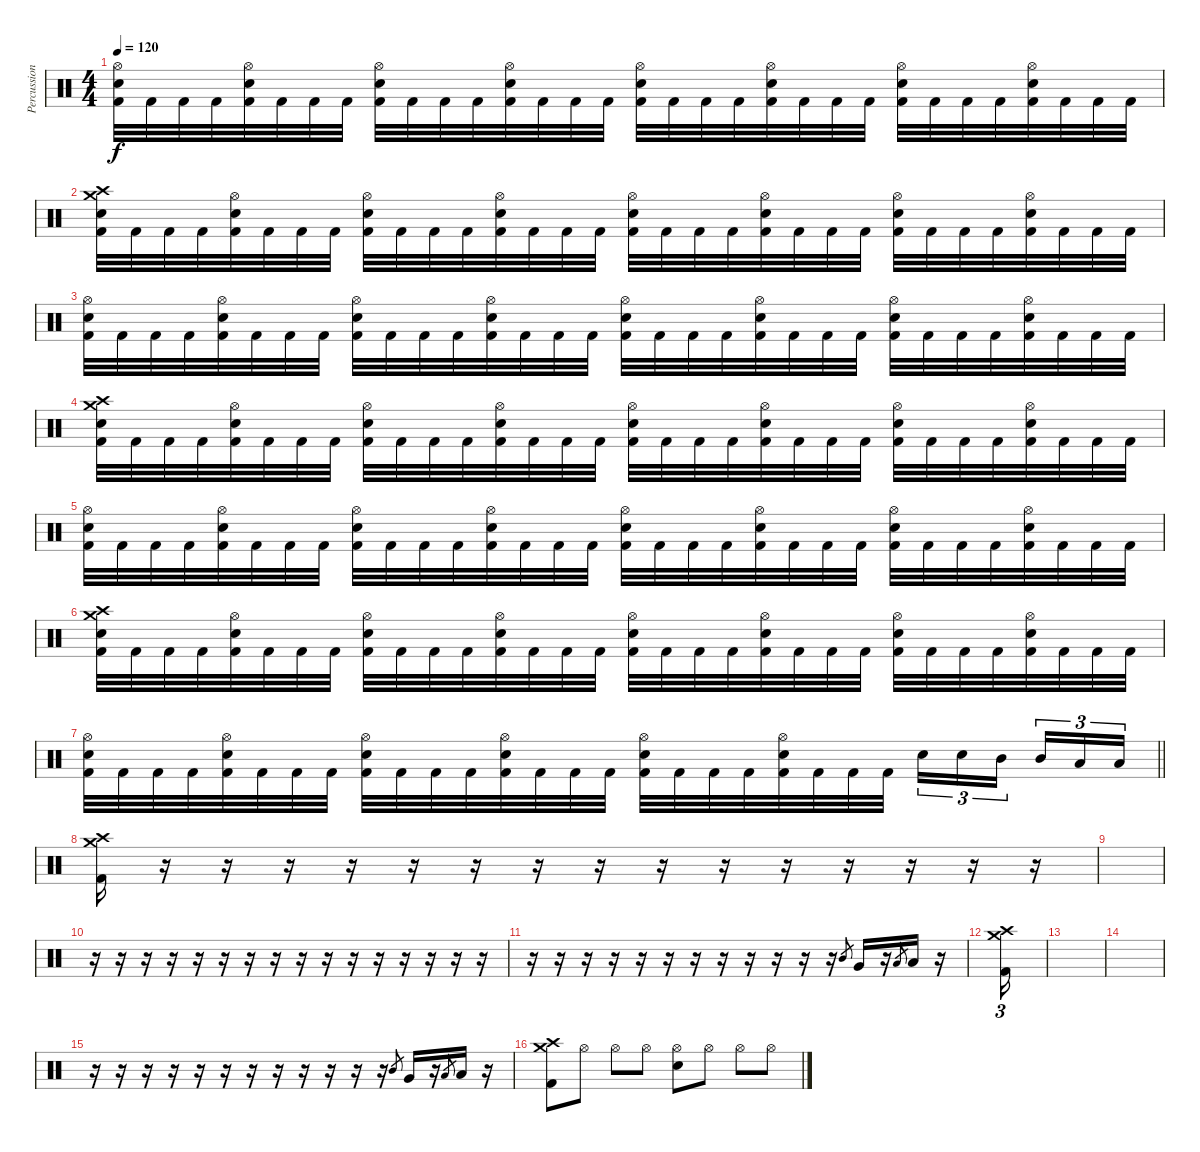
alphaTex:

\track ("Percussion" "Percussion") {instrument percussion}
\staff {score}
\articulation defaults
\ts (4 4)
\tempo 120
\clef neutral
\ks c
("Hi-Hat (open)" "Electric Snare (hit)" "Kick (hit) 2").32{dy f} "Kick (hit) 2".32 "Kick (hit) 2".32 "Kick (hit) 2".32 ("Hi-Hat (open)" "Electric Snare (hit)" "Kick (hit) 2").32 "Kick (hit) 2".32 "Kick (hit) 2".32 "Kick (hit) 2".32 ("Hi-Hat (open)" "Electric Snare (hit)" "Kick (hit) 2").32 "Kick (hit) 2".32 "Kick (hit) 2".32 "Kick (hit) 2".32 ("Hi-Hat (open)" "Electric Snare (hit)" "Kick (hit) 2").32 "Kick (hit) 2".32 "Kick (hit) 2".32 "Kick (hit) 2".32 ("Hi-Hat (open)" "Electric Snare (hit)" "Kick (hit) 2").32 "Kick (hit) 2".32 "Kick (hit) 2".32 "Kick (hit) 2".32 ("Hi-Hat (open)" "Electric Snare (hit)" "Kick (hit) 2").32 "Kick (hit) 2".32 "Kick (hit) 2".32 "Kick (hit) 2".32 ("Hi-Hat (open)" "Electric Snare (hit)" "Kick (hit) 2").32 "Kick (hit) 2".32 "Kick (hit) 2".32 "Kick (hit) 2".32 ("Hi-Hat (open)" "Electric Snare (hit)" "Kick (hit) 2").32 "Kick (hit) 2".32 "Kick (hit) 2".32 "Kick (hit) 2".32 |
("Crash medium (hit)" "Crash high (hit)" "Electric Snare (hit)" "Kick (hit) 2").32 "Kick (hit) 2".32 "Kick (hit) 2".32 "Kick (hit) 2".32 ("Hi-Hat (open)" "Electric Snare (hit)" "Kick (hit) 2").32 "Kick (hit) 2".32 "Kick (hit) 2".32 "Kick (hit) 2".32 ("Hi-Hat (open)" "Electric Snare (hit)" "Kick (hit) 2").32 "Kick (hit) 2".32 "Kick (hit) 2".32 "Kick (hit) 2".32 ("Hi-Hat (open)" "Electric Snare (hit)" "Kick (hit) 2").32 "Kick (hit) 2".32 "Kick (hit) 2".32 "Kick (hit) 2".32 ("Hi-Hat (open)" "Electric Snare (hit)" "Kick (hit) 2").32 "Kick (hit) 2".32 "Kick (hit) 2".32 "Kick (hit) 2".32 ("Hi-Hat (open)" "Electric Snare (hit)" "Kick (hit) 2").32 "Kick (hit) 2".32 "Kick (hit) 2".32 "Kick (hit) 2".32 ("Hi-Hat (open)" "Electric Snare (hit)" "Kick (hit) 2").32 "Kick (hit) 2".32 "Kick (hit) 2".32 "Kick (hit) 2".32 ("Hi-Hat (open)" "Electric Snare (hit)" "Kick (hit) 2").32 "Kick (hit) 2".32 "Kick (hit) 2".32 "Kick (hit) 2".32 |
("Hi-Hat (open)" "Electric Snare (hit)" "Kick (hit) 2").32 "Kick (hit) 2".32 "Kick (hit) 2".32 "Kick (hit) 2".32 ("Hi-Hat (open)" "Electric Snare (hit)" "Kick (hit) 2").32 "Kick (hit) 2".32 "Kick (hit) 2".32 "Kick (hit) 2".32 ("Hi-Hat (open)" "Electric Snare (hit)" "Kick (hit) 2").32 "Kick (hit) 2".32 "Kick (hit) 2".32 "Kick (hit) 2".32 ("Hi-Hat (open)" "Electric Snare (hit)" "Kick (hit) 2").32 "Kick (hit) 2".32 "Kick (hit) 2".32 "Kick (hit) 2".32 ("Hi-Hat (open)" "Electric Snare (hit)" "Kick (hit) 2").32 "Kick (hit) 2".32 "Kick (hit) 2".32 "Kick (hit) 2".32 ("Hi-Hat (open)" "Electric Snare (hit)" "Kick (hit) 2").32 "Kick (hit) 2".32 "Kick (hit) 2".32 "Kick (hit) 2".32 ("Hi-Hat (open)" "Electric Snare (hit)" "Kick (hit) 2").32 "Kick (hit) 2".32 "Kick (hit) 2".32 "Kick (hit) 2".32 ("Hi-Hat (open)" "Electric Snare (hit)" "Kick (hit) 2").32 "Kick (hit) 2".32 "Kick (hit) 2".32 "Kick (hit) 2".32 |
("Crash medium (hit)" "Crash high (hit)" "Electric Snare (hit)" "Kick (hit) 2").32 "Kick (hit) 2".32 "Kick (hit) 2".32 "Kick (hit) 2".32 ("Hi-Hat (open)" "Electric Snare (hit)" "Kick (hit) 2").32 "Kick (hit) 2".32 "Kick (hit) 2".32 "Kick (hit) 2".32 ("Hi-Hat (open)" "Electric Snare (hit)" "Kick (hit) 2").32 "Kick (hit) 2".32 "Kick (hit) 2".32 "Kick (hit) 2".32 ("Hi-Hat (open)" "Electric Snare (hit)" "Kick (hit) 2").32 "Kick (hit) 2".32 "Kick (hit) 2".32 "Kick (hit) 2".32 ("Hi-Hat (open)" "Electric Snare (hit)" "Kick (hit) 2").32 "Kick (hit) 2".32 "Kick (hit) 2".32 "Kick (hit) 2".32 ("Hi-Hat (open)" "Electric Snare (hit)" "Kick (hit) 2").32 "Kick (hit) 2".32 "Kick (hit) 2".32 "Kick (hit) 2".32 ("Hi-Hat (open)" "Electric Snare (hit)" "Kick (hit) 2").32 "Kick (hit) 2".32 "Kick (hit) 2".32 "Kick (hit) 2".32 ("Hi-Hat (open)" "Electric Snare (hit)" "Kick (hit) 2").32 "Kick (hit) 2".32 "Kick (hit) 2".32 "Kick (hit) 2".32 |
("Hi-Hat (open)" "Electric Snare (hit)" "Kick (hit) 2").32 "Kick (hit) 2".32 "Kick (hit) 2".32 "Kick (hit) 2".32 ("Hi-Hat (open)" "Electric Snare (hit)" "Kick (hit) 2").32 "Kick (hit) 2".32 "Kick (hit) 2".32 "Kick (hit) 2".32 ("Hi-Hat (open)" "Electric Snare (hit)" "Kick (hit) 2").32 "Kick (hit) 2".32 "Kick (hit) 2".32 "Kick (hit) 2".32 ("Hi-Hat (open)" "Electric Snare (hit)" "Kick (hit) 2").32 "Kick (hit) 2".32 "Kick (hit) 2".32 "Kick (hit) 2".32 ("Hi-Hat (open)" "Electric Snare (hit)" "Kick (hit) 2").32 "Kick (hit) 2".32 "Kick (hit) 2".32 "Kick (hit) 2".32 ("Hi-Hat (open)" "Electric Snare (hit)" "Kick (hit) 2").32 "Kick (hit) 2".32 "Kick (hit) 2".32 "Kick (hit) 2".32 ("Hi-Hat (open)" "Electric Snare (hit)" "Kick (hit) 2").32 "Kick (hit) 2".32 "Kick (hit) 2".32 "Kick (hit) 2".32 ("Hi-Hat (open)" "Electric Snare (hit)" "Kick (hit) 2").32 "Kick (hit) 2".32 "Kick (hit) 2".32 "Kick (hit) 2".32 |
("Crash medium (hit)" "Crash high (hit)" "Electric Snare (hit)" "Kick (hit) 2").32 "Kick (hit) 2".32 "Kick (hit) 2".32 "Kick (hit) 2".32 ("Hi-Hat (open)" "Electric Snare (hit)" "Kick (hit) 2").32 "Kick (hit) 2".32 "Kick (hit) 2".32 "Kick (hit) 2".32 ("Hi-Hat (open)" "Electric Snare (hit)" "Kick (hit) 2").32 "Kick (hit) 2".32 "Kick (hit) 2".32 "Kick (hit) 2".32 ("Hi-Hat (open)" "Electric Snare (hit)" "Kick (hit) 2").32 "Kick (hit) 2".32 "Kick (hit) 2".32 "Kick (hit) 2".32 ("Hi-Hat (open)" "Electric Snare (hit)" "Kick (hit) 2").32 "Kick (hit) 2".32 "Kick (hit) 2".32 "Kick (hit) 2".32 ("Hi-Hat (open)" "Electric Snare (hit)" "Kick (hit) 2").32 "Kick (hit) 2".32 "Kick (hit) 2".32 "Kick (hit) 2".32 ("Hi-Hat (open)" "Electric Snare (hit)" "Kick (hit) 2").32 "Kick (hit) 2".32 "Kick (hit) 2".32 "Kick (hit) 2".32 ("Hi-Hat (open)" "Electric Snare (hit)" "Kick (hit) 2").32 "Kick (hit) 2".32 "Kick (hit) 2".32 "Kick (hit) 2".32 |
\barLineRight lightlight
("Hi-Hat (open)" "Electric Snare (hit)" "Kick (hit) 2").32 "Kick (hit) 2".32 "Kick (hit) 2".32 "Kick (hit) 2".32 ("Hi-Hat (open)" "Electric Snare (hit)" "Kick (hit) 2").32 "Kick (hit) 2".32 "Kick (hit) 2".32 "Kick (hit) 2".32 ("Hi-Hat (open)" "Electric Snare (hit)" "Kick (hit) 2").32 "Kick (hit) 2".32 "Kick (hit) 2".32 "Kick (hit) 2".32 ("Hi-Hat (open)" "Electric Snare (hit)" "Kick (hit) 2").32 "Kick (hit) 2".32 "Kick (hit) 2".32 "Kick (hit) 2".32 ("Hi-Hat (open)" "Electric Snare (hit)" "Kick (hit) 2").32 "Kick (hit) 2".32 "Kick (hit) 2".32 "Kick (hit) 2".32 ("Hi-Hat (open)" "Electric Snare (hit)" "Kick (hit) 2").32 "Kick (hit) 2".32 "Kick (hit) 2".32 "Kick (hit) 2".32 "Electric Snare (hit)".16{tu (3 2)} "Electric Snare (hit)".16{tu (3 2)} "Mid Tom (hit)".16{tu (3 2) beam splitsecondary} "Mid Tom (hit)".16{tu (3 2)} "Low Tom (hit)".16{tu (3 2)} "Low Tom (hit)".16{tu (3 2)} |
("Crash medium (hit)" "Crash high (hit)" "Kick (hit) 2").16 r.16 r.16 r.16 r.16 r.16 r.16 r.16 r.16 r.16 r.16 r.16 r.16 r.16 r.16 r.16 |
|
r.16 r.16 r.16 r.16 r.16 r.16 r.16 r.16 r.16 r.16 r.16 r.16 r.16 r.16 r.16 r.16 |
r.16 r.16 r.16 r.16 r.16 r.16 r.16 r.16 r.16 r.16 r.16 r.16 "Mid Tom (hit)".8{gr} "Very Low Tom (hit)".16 r.16 "Low Tom (hit)".8{gr} "Low Floor Tom (hit)".16 r.16 |
("Crash medium (hit)" "Crash high (hit)" "Kick (hit) 2").16{tu (3 2)} |
|
|
r.16 r.16 r.16 r.16 r.16 r.16 r.16 r.16 r.16 r.16 r.16 r.16 "Mid Tom (hit)".8{gr} "Very Low Tom (hit)".16 r.16 "Low Tom (hit)".8{gr} "Low Floor Tom (hit)".16 r.16 |
("Crash medium (hit)" "Crash high (hit)" "Kick (hit) 2").8 "Hi-Hat (open)".8 "Hi-Hat (open)".8 "Hi-Hat (open)".8 ("Hi-Hat (open)" "Electric Snare (hit)").8 "Hi-Hat (open)".8 "Hi-Hat (open)".8 "Hi-Hat (open)".8
